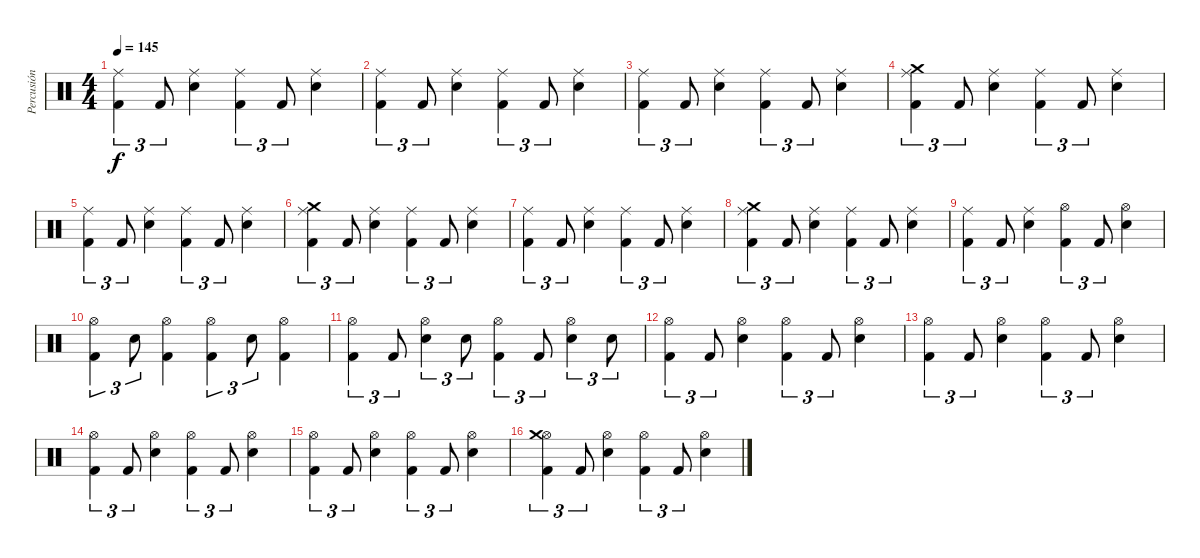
\track ("Percusión" "Percusión") {instrument percussion}
\staff {score}
\articulation defaults
\ts (4 4)
\tempo 145
\clef neutral
\ks c
("Kick (hit) 2" "Ride (middle)").4{tu (3 2) dy f} "Kick (hit) 2".8{tu (3 2)} ("Snare (hit) 2" "Ride (middle)").4 ("Kick (hit) 2" "Ride (middle)").4{tu (3 2)} "Kick (hit) 2".8{tu (3 2)} ("Snare (hit) 2" "Ride (middle)").4 |
("Kick (hit) 2" "Ride (middle)").4{tu (3 2)} "Kick (hit) 2".8{tu (3 2)} ("Snare (hit) 2" "Ride (middle)").4 ("Kick (hit) 2" "Ride (middle)").4{tu (3 2)} "Kick (hit) 2".8{tu (3 2)} ("Snare (hit) 2" "Ride (middle)").4 |
("Kick (hit) 2" "Ride (middle)").4{tu (3 2)} "Kick (hit) 2".8{tu (3 2)} ("Snare (hit) 2" "Ride (middle)").4 ("Kick (hit) 2" "Ride (middle)").4{tu (3 2)} "Kick (hit) 2".8{tu (3 2)} ("Snare (hit) 2" "Ride (middle)").4 |
("Crash medium (hit)" "Kick (hit) 2" "Ride (middle)").4{tu (3 2)} "Kick (hit) 2".8{tu (3 2)} ("Snare (hit) 2" "Ride (middle)").4 ("Kick (hit) 2" "Ride (middle)").4{tu (3 2)} "Kick (hit) 2".8{tu (3 2)} ("Snare (hit) 2" "Ride (middle)").4 |
("Kick (hit) 2" "Ride (middle)").4{tu (3 2)} "Kick (hit) 2".8{tu (3 2)} ("Snare (hit) 2" "Ride (middle)").4 ("Kick (hit) 2" "Ride (middle)").4{tu (3 2)} "Kick (hit) 2".8{tu (3 2)} ("Snare (hit) 2" "Ride (middle)").4 |
("Kick (hit) 2" "Ride (middle)" "Crash medium (hit)").4{tu (3 2)} "Kick (hit) 2".8{tu (3 2)} ("Snare (hit) 2" "Ride (middle)").4 ("Kick (hit) 2" "Ride (middle)").4{tu (3 2)} "Kick (hit) 2".8{tu (3 2)} ("Snare (hit) 2" "Ride (middle)").4 |
("Kick (hit) 2" "Ride (middle)").4{tu (3 2)} "Kick (hit) 2".8{tu (3 2)} ("Snare (hit) 2" "Ride (middle)").4 ("Kick (hit) 2" "Ride (middle)").4{tu (3 2)} "Kick (hit) 2".8{tu (3 2)} ("Snare (hit) 2" "Ride (middle)").4 |
("Crash medium (hit)" "Kick (hit) 2" "Ride (middle)").4{tu (3 2)} "Kick (hit) 2".8{tu (3 2)} ("Snare (hit) 2" "Ride (middle)").4 ("Kick (hit) 2" "Ride (middle)").4{tu (3 2)} "Kick (hit) 2".8{tu (3 2)} ("Snare (hit) 2" "Ride (middle)").4 |
("Kick (hit) 2" "Ride (middle)").4{tu (3 2)} "Kick (hit) 2".8{tu (3 2)} ("Snare (hit) 2" "Ride (middle)").4 ("Kick (hit) 2" "Hi-Hat (open)").4{tu (3 2)} "Kick (hit) 2".8{tu (3 2)} ("Snare (hit) 2" "Hi-Hat (open)").4 |
("Kick (hit) 2" "Hi-Hat (open)").4{tu (3 2)} "Snare (hit) 2".8{tu (3 2)} ("Kick (hit) 2" "Hi-Hat (open)").4 ("Kick (hit) 2" "Hi-Hat (open)").4{tu (3 2)} "Snare (hit) 2".8{tu (3 2)} ("Kick (hit) 2" "Hi-Hat (open)").4 |
("Kick (hit) 2" "Hi-Hat (open)").4{tu (3 2)} "Kick (hit) 2".8{tu (3 2)} ("Snare (hit) 2" "Hi-Hat (open)").4{tu (3 2)} "Snare (hit) 2".8{tu (3 2)} ("Kick (hit) 2" "Hi-Hat (open)").4{tu (3 2)} "Kick (hit) 2".8{tu (3 2)} ("Snare (hit) 2" "Hi-Hat (open)").4{tu (3 2)} "Snare (hit) 2".8{tu (3 2)} |
("Kick (hit) 2" "Hi-Hat (open)").4{tu (3 2)} "Kick (hit) 2".8{tu (3 2)} ("Snare (hit) 2" "Hi-Hat (open)").4 ("Kick (hit) 2" "Hi-Hat (open)").4{tu (3 2)} "Kick (hit) 2".8{tu (3 2)} ("Snare (hit) 2" "Hi-Hat (open)").4 |
("Kick (hit) 2" "Hi-Hat (open)").4{tu (3 2)} "Kick (hit) 2".8{tu (3 2)} ("Snare (hit) 2" "Hi-Hat (open)").4 ("Kick (hit) 2" "Hi-Hat (open)").4{tu (3 2)} "Kick (hit) 2".8{tu (3 2)} ("Snare (hit) 2" "Hi-Hat (open)").4 |
("Kick (hit) 2" "Hi-Hat (open)").4{tu (3 2)} "Kick (hit) 2".8{tu (3 2)} ("Snare (hit) 2" "Hi-Hat (open)").4 ("Kick (hit) 2" "Hi-Hat (open)").4{tu (3 2)} "Kick (hit) 2".8{tu (3 2)} ("Snare (hit) 2" "Hi-Hat (open)").4 |
("Kick (hit) 2" "Hi-Hat (open)").4{tu (3 2)} "Kick (hit) 2".8{tu (3 2)} ("Snare (hit) 2" "Hi-Hat (open)").4 ("Kick (hit) 2" "Hi-Hat (open)").4{tu (3 2)} "Kick (hit) 2".8{tu (3 2)} ("Snare (hit) 2" "Hi-Hat (open)").4 |
("Kick (hit) 2" "Hi-Hat (open)" "Crash medium (hit)").4{tu (3 2)} "Kick (hit) 2".8{tu (3 2)} ("Snare (hit) 2" "Hi-Hat (open)").4 ("Kick (hit) 2" "Hi-Hat (open)").4{tu (3 2)} "Kick (hit) 2".8{tu (3 2)} ("Snare (hit) 2" "Hi-Hat (open)").4
